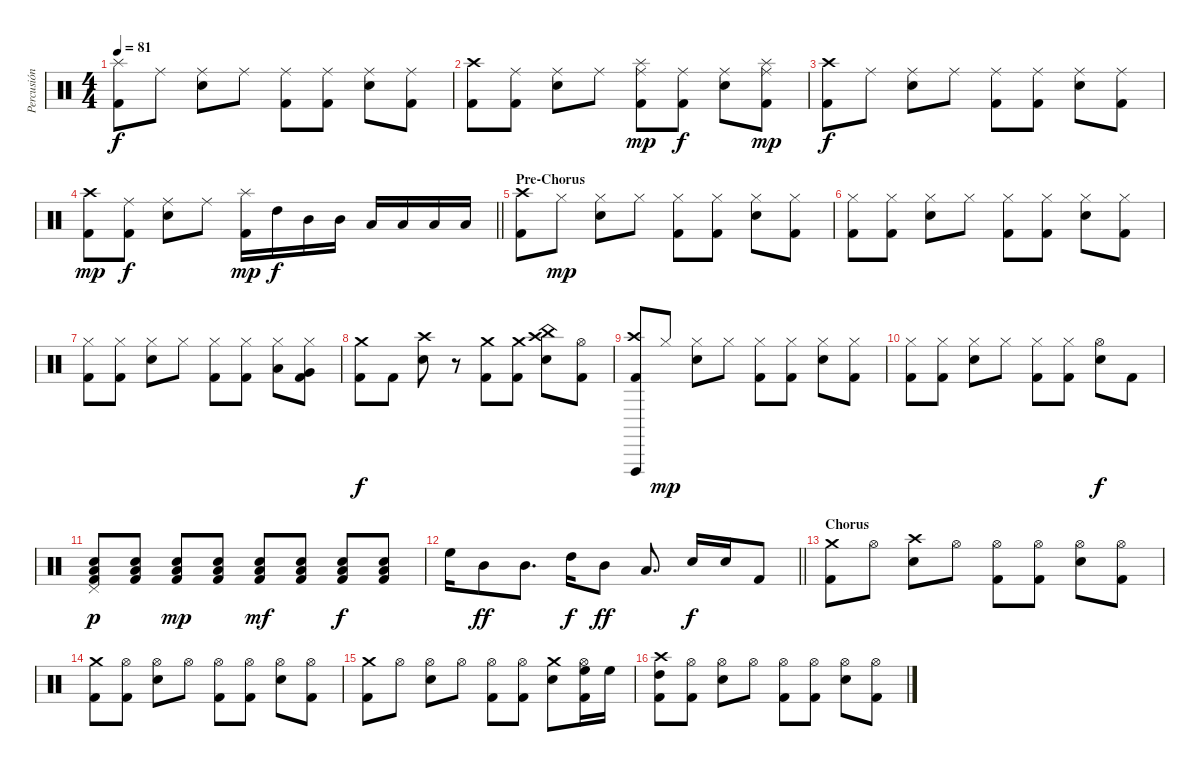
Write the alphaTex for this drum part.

\track ("Percusión" "Percusión") {instrument percussion}
\staff {score}
\articulation defaults
\ts (4 4)
\tempo 81
\clef neutral
\ks c
("Splash (hit)" "Kick (hit) 2").8{dy f} "Ride (middle)".8 ("Ride (middle)" "Snare (hit) 2").8 "Ride (middle)".8 ("Ride (middle)" "Kick (hit) 2").8 ("Ride (middle)" "Kick (hit) 2").8 ("Ride (middle)" "Snare (hit) 2").8 ("Ride (middle)" "Kick (hit) 2").8 |
("Crash high (hit)" "Kick (hit) 2").8 ("Ride (middle)" "Kick (hit) 2").8 ("Ride (middle)" "Snare (hit) 2").8 "Ride (middle)".8 ("Splash (hit)" "Ride (middle)" "Kick (hit) 2").8{dy mp} ("Ride (middle)" "Kick (hit) 2").8{dy f} ("Ride (middle)" "Snare (hit) 2").8 ("Splash (hit)" "Ride (middle)" "Kick (hit) 2").8{dy mp} |
("Crash high (hit)" "Kick (hit) 2").8{dy f} "Ride (middle)".8 ("Ride (middle)" "Snare (hit) 2").8 "Ride (middle)".8 ("Ride (middle)" "Kick (hit) 2").8 ("Ride (middle)" "Kick (hit) 2").8 ("Ride (middle)" "Snare (hit) 2").8 ("Ride (middle)" "Kick (hit) 2").8 |
\barLineRight lightlight
("Crash high (hit)" "Kick (hit) 2").8{dy mp} ("Ride (middle)" "Kick (hit) 2").8{dy f} ("Ride (middle)" "Snare (hit) 2").8 "Ride (middle)".8 ("Splash (hit)" "Kick (hit) 2").16{dy mp} "High Tom (hit)".16{dy f} "Mid Tom (hit)".16 "Mid Tom (hit)".16 "Low Tom (hit)".16 "Low Tom (hit)".16 "Low Tom (hit)".16 "Low Tom (hit)".16 |
\section ("" "Pre-Chorus")
("Crash high (hit)" "Kick (hit) 2").8 "Hi-Hat (closed)".8{dy mp} ("Hi-Hat (closed)" "Snare (hit) 2").8 "Hi-Hat (closed)".8 ("Hi-Hat (closed)" "Kick (hit) 2").8 ("Hi-Hat (closed)" "Kick (hit) 2").8 ("Hi-Hat (closed)" "Snare (hit) 2").8 ("Hi-Hat (closed)" "Kick (hit) 2").8 |
("Hi-Hat (closed)" "Kick (hit) 2").8 ("Hi-Hat (closed)" "Kick (hit) 2").8 ("Hi-Hat (closed)" "Snare (hit) 2").8 "Hi-Hat (closed)".8 ("Hi-Hat (closed)" "Kick (hit) 2").8 ("Hi-Hat (closed)" "Kick (hit) 2").8 ("Hi-Hat (closed)" "Snare (hit) 2").8 ("Hi-Hat (closed)" "Kick (hit) 2").8 |
("Hi-Hat (closed)" "Kick (hit) 2").8 ("Hi-Hat (closed)" "Kick (hit) 2").8 ("Hi-Hat (closed)" "Snare (hit) 2").8 "Hi-Hat (closed)".8 ("Hi-Hat (closed)" "Kick (hit) 2").8 ("Hi-Hat (closed)" "Kick (hit) 2").8 ("Hi-Hat (closed)" "Low Tom (hit)").8 ("Hi-Hat (closed)" "Very Low Tom (hit)" "Kick (hit) 2").8 |
("Crash medium (hit)" "Kick (hit) 2").8{dy f} "Kick (hit) 2".8 ("Crash high (hit)" "Snare (hit) 2").8 r.8 ("Crash medium (hit)" "Kick (hit) 2").8 ("Crash medium (hit)" "Kick (hit) 2").8 ("Crash high (hit)" "China (hit)" "Snare (hit) 2").8 ("Hi-Hat (open)" "Kick (hit) 2").8 |
("Crash high (hit)" "Vibraslap (hit)" "Kick (hit) 2").8 "Hi-Hat (closed)".8{dy mp} ("Hi-Hat (closed)" "Snare (hit) 2").8 "Hi-Hat (closed)".8 ("Hi-Hat (closed)" "Kick (hit) 2").8 ("Hi-Hat (closed)" "Kick (hit) 2").8 ("Hi-Hat (closed)" "Snare (hit) 2").8 ("Hi-Hat (closed)" "Kick (hit) 2").8 |
("Hi-Hat (closed)" "Kick (hit) 2").8 ("Hi-Hat (closed)" "Kick (hit) 2").8 ("Hi-Hat (closed)" "Snare (hit) 2").8 "Hi-Hat (closed)".8 ("Hi-Hat (closed)" "Kick (hit) 2").8 ("Hi-Hat (closed)" "Kick (hit) 2").8 ("Hi-Hat (open)" "Snare (hit) 2").8{dy f} "Kick (hit) 2".8 |
("Pedal Hi-Hat (hit)" "Low Floor Tom (hit)" "Snare (hit) 2" "Kick (hit) 2").8{dy p} ("Low Floor Tom (hit)" "Snare (hit) 2" "Kick (hit) 2").8 ("Low Floor Tom (hit)" "Snare (hit) 2" "Kick (hit) 2").8{dy mp} ("Low Floor Tom (hit)" "Snare (hit) 2" "Kick (hit) 2").8 ("Low Floor Tom (hit)" "Snare (hit) 2" "Kick (hit) 2").8{dy mf} ("Low Floor Tom (hit)" "Snare (hit) 2" "Kick (hit) 2").8 ("Low Floor Tom (hit)" "Snare (hit) 2" "Kick (hit) 2").8{dy f} ("Low Floor Tom (hit)" "Snare (hit) 2" "Kick (hit) 2").8 |
\barLineRight lightlight "High Floor Tom (hit)".16 "Mid Tom (hit)".8{dy ff} "Mid Tom (hit)".8{d} "High Tom (hit)".16{dy f} "Mid Tom (hit)".8{dy ff} "Low Tom (hit)".8{d} "Snare (hit) 2".16{dy f} "Snare (hit) 2".16 "Kick (hit) 2".8
|
\section ("" "Chorus")
("Crash medium (hit)" "Kick (hit) 2").8 "Hi-Hat (open)".8 ("Crash high (hit)" "Snare (hit) 2").8 "Hi-Hat (open)".8 ("Hi-Hat (open)" "Kick (hit) 2").8 ("Hi-Hat (open)" "Kick (hit) 2").8 ("Hi-Hat (open)" "Snare (hit) 2").8 ("Hi-Hat (open)" "Kick (hit) 2").8 |
("Crash medium (hit)" "Kick (hit) 2").8 ("Hi-Hat (open)" "Kick (hit) 2").8 ("Hi-Hat (open)" "Snare (hit) 2").8 "Hi-Hat (open)".8 ("Hi-Hat (open)" "Kick (hit) 2").8 ("Hi-Hat (open)" "Kick (hit) 2").8 ("Hi-Hat (open)" "Snare (hit) 2").8 ("Hi-Hat (open)" "Kick (hit) 2").8 |
("Crash medium (hit)" "Kick (hit) 2").8 "Hi-Hat (open)".8 ("Hi-Hat (open)" "Snare (hit) 2").8 "Hi-Hat (open)".8 ("Hi-Hat (open)" "Kick (hit) 2").8 ("Hi-Hat (open)" "Kick (hit) 2").8 ("Crash medium (hit)" "Snare (hit) 2").8 ("Hi-Hat (open)" "High Floor Tom (hit)" "Kick (hit) 2").16 "High Floor Tom (hit)".16 |
("Crash high (hit)" "High Tom (hit)" "Kick (hit) 2").8 ("Hi-Hat (open)" "Kick (hit) 2").8 ("Hi-Hat (open)" "Snare (hit) 2").8 "Hi-Hat (open)".8 ("Hi-Hat (open)" "Kick (hit) 2").8 ("Hi-Hat (open)" "Kick (hit) 2").8 ("Hi-Hat (open)" "Snare (hit) 2").8 ("Hi-Hat (open)" "Kick (hit) 2").8
